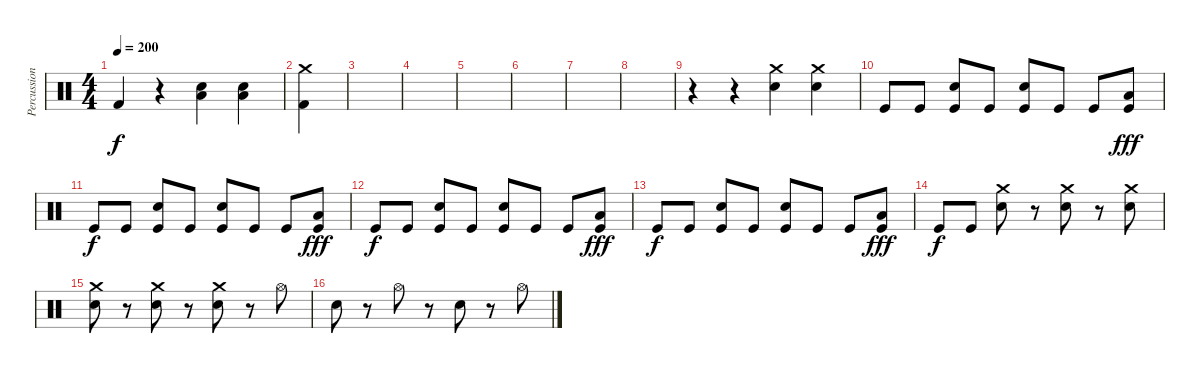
\track ("Percussion" "Percussion") {instrument percussion}
\staff {score}
\articulation defaults
\ts (4 4)
\tempo 200
\clef neutral
\ks c "Kick (hit) 2".4{dy f}
r.4 ("Electric Snare (hit)" "Low Floor Tom (hit)").4 ("Electric Snare (hit)" "Low Floor Tom (hit)").4 |
("Crash medium (hit)" "Kick (hit) 2").4 |
|
|
|
|
|
|
r.4 r.4 ("Crash medium (hit)" "Electric Snare (hit)").4 ("Crash medium (hit)" "Electric Snare (hit)").4 |
"Kick (hit)".8 "Kick (hit)".8 ("Electric Snare (hit)" "Kick (hit)").8 "Kick (hit)".8 ("Electric Snare (hit)" "Kick (hit)").8 "Kick (hit)".8 "Kick (hit)".8 ("Low Tom (hit)" "Kick (hit)").8{dy fff} |
"Kick (hit)".8{dy f} "Kick (hit)".8 ("Electric Snare (hit)" "Kick (hit)").8 "Kick (hit)".8 ("Electric Snare (hit)" "Kick (hit)").8 "Kick (hit)".8 "Kick (hit)".8 ("Low Tom (hit)" "Kick (hit)").8{dy fff} |
"Kick (hit)".8{dy f} "Kick (hit)".8 ("Electric Snare (hit)" "Kick (hit)").8 "Kick (hit)".8 ("Electric Snare (hit)" "Kick (hit)").8 "Kick (hit)".8 "Kick (hit)".8 ("Low Tom (hit)" "Kick (hit)").8{dy fff} |
"Kick (hit)".8{dy f} "Kick (hit)".8 ("Electric Snare (hit)" "Kick (hit)").8 "Kick (hit)".8 ("Electric Snare (hit)" "Kick (hit)").8 "Kick (hit)".8 "Kick (hit)".8 ("Low Tom (hit)" "Kick (hit)").8{dy fff} |
"Kick (hit)".8{dy f} "Kick (hit)".8 ("Electric Snare (hit)" "Crash medium (hit)").8 r.8 ("Electric Snare (hit)" "Crash medium (hit)").8 r.8 ("Electric Snare (hit)" "Crash medium (hit)").8 |
("Electric Snare (hit)" "Crash medium (hit)").8 r.8 ("Electric Snare (hit)" "Crash medium (hit)").8 r.8 ("Electric Snare (hit)" "Crash medium (hit)").8 r.8 "Hi-Hat (open)".8 |
"Electric Snare (hit)".8 r.8 "Hi-Hat (open)".8 r.8 "Electric Snare (hit)".8 r.8 "Hi-Hat (open)".8
